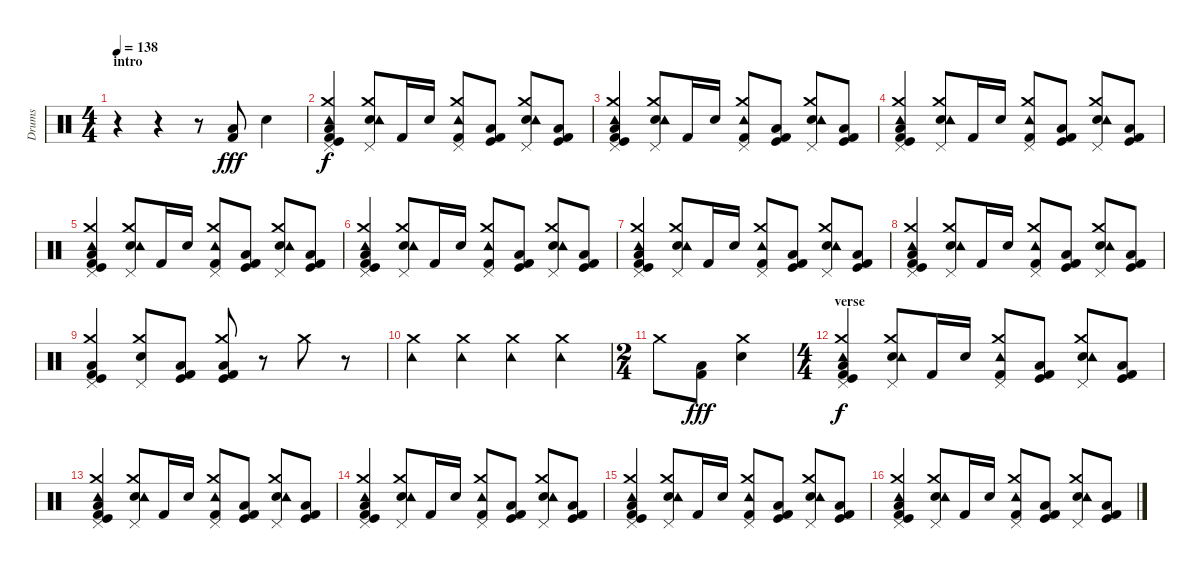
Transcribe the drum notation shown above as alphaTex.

\track ("Drums" "Drums") {instrument percussion}
\staff {score}
\articulation defaults
\ts (4 4)
\section ("" "intro")
\tempo 138
\clef neutral
\ks c
r.4{dy fff} r.4 r.8 ("Kick (hit) 2" "Low Floor Tom (hit)").8 "Electric Snare (hit)".4 |
("Crash medium (hit)" "Pedal Hi-Hat (hit)" "Kick (hit) 2" "Kick (hit)" "Low Floor Tom (hit)" "Tambourine (hit)").4{dy f} ("Crash medium (hit)" "Pedal Hi-Hat (hit)" "Electric Snare (hit)" "Tambourine (hit)").8 "Kick (hit) 2".16 "Electric Snare (hit)".16 ("Crash medium (hit)" "Pedal Hi-Hat (hit)" "Kick (hit) 2" "Tambourine (hit)").8 ("Kick (hit) 2" "Kick (hit)" "Low Floor Tom (hit)").8 ("Crash medium (hit)" "Pedal Hi-Hat (hit)" "Electric Snare (hit)" "Tambourine (hit)").8 ("Kick (hit) 2" "Low Floor Tom (hit)" "Kick (hit)").8 |
("Crash medium (hit)" "Pedal Hi-Hat (hit)" "Kick (hit) 2" "Kick (hit)" "Low Floor Tom (hit)" "Tambourine (hit)").4 ("Crash medium (hit)" "Pedal Hi-Hat (hit)" "Electric Snare (hit)" "Tambourine (hit)").8 "Kick (hit) 2".16 "Electric Snare (hit)".16 ("Crash medium (hit)" "Pedal Hi-Hat (hit)" "Kick (hit) 2" "Tambourine (hit)").8 ("Kick (hit) 2" "Kick (hit)" "Low Floor Tom (hit)").8 ("Crash medium (hit)" "Pedal Hi-Hat (hit)" "Electric Snare (hit)" "Tambourine (hit)").8 ("Kick (hit) 2" "Low Floor Tom (hit)" "Kick (hit)").8 |
("Crash medium (hit)" "Pedal Hi-Hat (hit)" "Kick (hit) 2" "Kick (hit)" "Low Floor Tom (hit)" "Tambourine (hit)").4 ("Crash medium (hit)" "Pedal Hi-Hat (hit)" "Electric Snare (hit)" "Tambourine (hit)").8 "Kick (hit) 2".16 "Electric Snare (hit)".16 ("Crash medium (hit)" "Pedal Hi-Hat (hit)" "Kick (hit) 2" "Tambourine (hit)").8 ("Kick (hit) 2" "Kick (hit)" "Low Floor Tom (hit)").8 ("Crash medium (hit)" "Pedal Hi-Hat (hit)" "Electric Snare (hit)" "Tambourine (hit)").8 ("Kick (hit) 2" "Low Floor Tom (hit)" "Kick (hit)").8 |
("Crash medium (hit)" "Pedal Hi-Hat (hit)" "Kick (hit) 2" "Kick (hit)" "Low Floor Tom (hit)" "Tambourine (hit)").4 ("Crash medium (hit)" "Pedal Hi-Hat (hit)" "Electric Snare (hit)" "Tambourine (hit)").8 "Kick (hit) 2".16 "Electric Snare (hit)".16 ("Crash medium (hit)" "Pedal Hi-Hat (hit)" "Kick (hit) 2" "Tambourine (hit)").8 ("Kick (hit) 2" "Kick (hit)" "Low Floor Tom (hit)").8 ("Crash medium (hit)" "Pedal Hi-Hat (hit)" "Electric Snare (hit)" "Tambourine (hit)").8 ("Kick (hit) 2" "Low Floor Tom (hit)" "Kick (hit)").8 |
("Crash medium (hit)" "Pedal Hi-Hat (hit)" "Kick (hit) 2" "Kick (hit)" "Low Floor Tom (hit)" "Tambourine (hit)").4 ("Crash medium (hit)" "Pedal Hi-Hat (hit)" "Electric Snare (hit)" "Tambourine (hit)").8 "Kick (hit) 2".16 "Electric Snare (hit)".16 ("Crash medium (hit)" "Pedal Hi-Hat (hit)" "Kick (hit) 2" "Tambourine (hit)").8 ("Kick (hit) 2" "Kick (hit)" "Low Floor Tom (hit)").8 ("Crash medium (hit)" "Pedal Hi-Hat (hit)" "Electric Snare (hit)" "Tambourine (hit)").8 ("Kick (hit) 2" "Low Floor Tom (hit)" "Kick (hit)").8 |
("Crash medium (hit)" "Pedal Hi-Hat (hit)" "Kick (hit) 2" "Kick (hit)" "Low Floor Tom (hit)" "Tambourine (hit)").4 ("Crash medium (hit)" "Pedal Hi-Hat (hit)" "Electric Snare (hit)" "Tambourine (hit)").8 "Kick (hit) 2".16 "Electric Snare (hit)".16 ("Crash medium (hit)" "Pedal Hi-Hat (hit)" "Kick (hit) 2" "Tambourine (hit)").8 ("Kick (hit) 2" "Kick (hit)" "Low Floor Tom (hit)").8 ("Crash medium (hit)" "Pedal Hi-Hat (hit)" "Electric Snare (hit)" "Tambourine (hit)").8 ("Kick (hit) 2" "Low Floor Tom (hit)" "Kick (hit)").8 |
("Crash medium (hit)" "Pedal Hi-Hat (hit)" "Kick (hit) 2" "Kick (hit)" "Low Floor Tom (hit)" "Tambourine (hit)").4 ("Crash medium (hit)" "Pedal Hi-Hat (hit)" "Electric Snare (hit)" "Tambourine (hit)").8 "Kick (hit) 2".16 "Electric Snare (hit)".16 ("Crash medium (hit)" "Pedal Hi-Hat (hit)" "Kick (hit) 2" "Tambourine (hit)").8 ("Kick (hit) 2" "Kick (hit)" "Low Floor Tom (hit)").8 ("Crash medium (hit)" "Pedal Hi-Hat (hit)" "Electric Snare (hit)" "Tambourine (hit)").8 ("Kick (hit) 2" "Low Floor Tom (hit)" "Kick (hit)").8 |
("Crash medium (hit)" "Pedal Hi-Hat (hit)" "Kick (hit) 2" "Kick (hit)" "Low Floor Tom (hit)").4 ("Crash medium (hit)" "Pedal Hi-Hat (hit)" "Electric Snare (hit)").8 ("Kick (hit) 2" "Kick (hit)" "Low Floor Tom (hit)").8 ("Crash medium (hit)" "Kick (hit) 2" "Kick (hit)" "Low Floor Tom (hit)").8 r.8 "Crash medium (hit)".8 r.8 |
("Crash medium (hit)" "Tambourine (hit)").4 ("Crash medium (hit)" "Tambourine (hit)").4 ("Crash medium (hit)" "Tambourine (hit)").4 ("Crash medium (hit)" "Tambourine (hit)").4 |
\ts (2 4)
"Crash medium (hit)".8 ("Kick (hit) 2" "Low Floor Tom (hit)").8{dy fff} ("Crash medium (hit)" "Electric Snare (hit)").4 |
\ts (4 4)
\section ("" "verse")
("Crash medium (hit)" "Pedal Hi-Hat (hit)" "Kick (hit) 2" "Kick (hit)" "Low Floor Tom (hit)" "Tambourine (hit)").4{dy f} ("Crash medium (hit)" "Pedal Hi-Hat (hit)" "Electric Snare (hit)" "Tambourine (hit)").8 "Kick (hit) 2".16 "Electric Snare (hit)".16 ("Crash medium (hit)" "Pedal Hi-Hat (hit)" "Kick (hit) 2" "Tambourine (hit)").8 ("Kick (hit) 2" "Kick (hit)" "Low Floor Tom (hit)").8 ("Crash medium (hit)" "Pedal Hi-Hat (hit)" "Electric Snare (hit)" "Tambourine (hit)").8 ("Kick (hit) 2" "Low Floor Tom (hit)" "Kick (hit)").8 |
("Crash medium (hit)" "Pedal Hi-Hat (hit)" "Kick (hit) 2" "Kick (hit)" "Low Floor Tom (hit)" "Tambourine (hit)").4 ("Crash medium (hit)" "Pedal Hi-Hat (hit)" "Electric Snare (hit)" "Tambourine (hit)").8 "Kick (hit) 2".16 "Electric Snare (hit)".16 ("Crash medium (hit)" "Pedal Hi-Hat (hit)" "Kick (hit) 2" "Tambourine (hit)").8 ("Kick (hit) 2" "Kick (hit)" "Low Floor Tom (hit)").8 ("Crash medium (hit)" "Pedal Hi-Hat (hit)" "Electric Snare (hit)" "Tambourine (hit)").8 ("Kick (hit) 2" "Low Floor Tom (hit)" "Kick (hit)").8 |
("Crash medium (hit)" "Pedal Hi-Hat (hit)" "Kick (hit) 2" "Kick (hit)" "Low Floor Tom (hit)" "Tambourine (hit)").4 ("Crash medium (hit)" "Pedal Hi-Hat (hit)" "Electric Snare (hit)" "Tambourine (hit)").8 "Kick (hit) 2".16 "Electric Snare (hit)".16 ("Crash medium (hit)" "Pedal Hi-Hat (hit)" "Kick (hit) 2" "Tambourine (hit)").8 ("Kick (hit) 2" "Kick (hit)" "Low Floor Tom (hit)").8 ("Crash medium (hit)" "Pedal Hi-Hat (hit)" "Electric Snare (hit)" "Tambourine (hit)").8 ("Kick (hit) 2" "Low Floor Tom (hit)" "Kick (hit)").8 |
("Crash medium (hit)" "Pedal Hi-Hat (hit)" "Kick (hit) 2" "Kick (hit)" "Low Floor Tom (hit)" "Tambourine (hit)").4 ("Crash medium (hit)" "Pedal Hi-Hat (hit)" "Electric Snare (hit)" "Tambourine (hit)").8 "Kick (hit) 2".16 "Electric Snare (hit)".16 ("Crash medium (hit)" "Pedal Hi-Hat (hit)" "Kick (hit) 2" "Tambourine (hit)").8 ("Kick (hit) 2" "Kick (hit)" "Low Floor Tom (hit)").8 ("Crash medium (hit)" "Pedal Hi-Hat (hit)" "Electric Snare (hit)" "Tambourine (hit)").8 ("Kick (hit) 2" "Low Floor Tom (hit)" "Kick (hit)").8 |
("Crash medium (hit)" "Pedal Hi-Hat (hit)" "Kick (hit) 2" "Kick (hit)" "Low Floor Tom (hit)" "Tambourine (hit)").4 ("Crash medium (hit)" "Pedal Hi-Hat (hit)" "Electric Snare (hit)" "Tambourine (hit)").8 "Kick (hit) 2".16 "Electric Snare (hit)".16 ("Crash medium (hit)" "Pedal Hi-Hat (hit)" "Kick (hit) 2" "Tambourine (hit)").8 ("Kick (hit) 2" "Kick (hit)" "Low Floor Tom (hit)").8 ("Crash medium (hit)" "Pedal Hi-Hat (hit)" "Electric Snare (hit)" "Tambourine (hit)").8 ("Kick (hit) 2" "Low Floor Tom (hit)" "Kick (hit)").8
